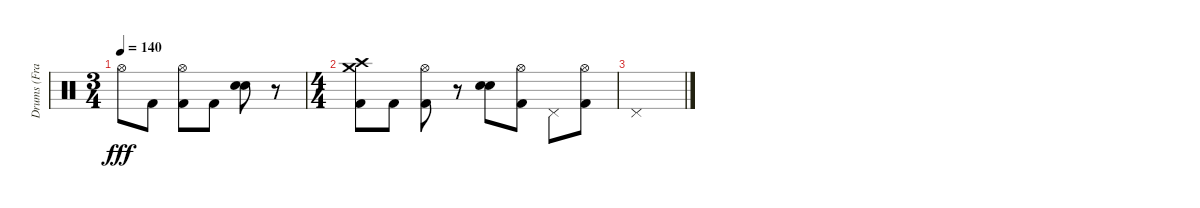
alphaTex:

\track ("Drums (Franky)" "Drums (Fra") {instrument percussion}
\staff {score}
\articulation defaults
\ts (3 4)
\tempo 140
\clef neutral
\ks c "Hi-Hat (open)".8{dy fff} "Kick (hit) 2".8
("Hi-Hat (open)" "Kick (hit) 2").8 "Kick (hit) 2".8 ("Electric Snare (hit)" "Electric Snare (hit)").8{bd 240} r.8 |
\ts (4 4)
("Crash medium (hit)" "Crash high (hit)" "Kick (hit) 2").8 "Kick (hit) 2".8 ("Hi-Hat (open)" "Kick (hit) 2").8 r.8 ("Electric Snare (hit)" "Electric Snare (hit)").8{bd 240} ("Hi-Hat (open)" "Kick (hit) 2").8 "Pedal Hi-Hat (hit)".8 ("Hi-Hat (open)" "Kick (hit) 2").8 |
"Pedal Hi-Hat (hit)".1
